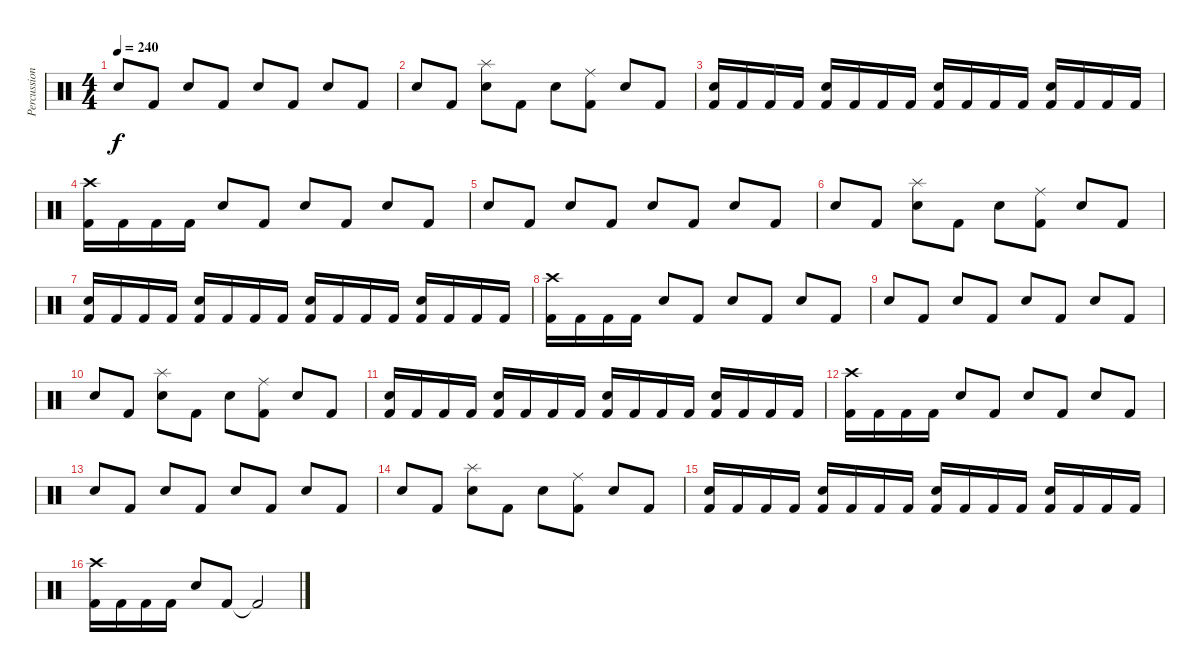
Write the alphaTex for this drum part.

\track ("Percussion" "Percussion") {instrument percussion}
\staff {score}
\articulation defaults
\ts (4 4)
\tempo 240
\clef neutral
\ks c "Electric Snare (hit)".8{dy f} "Kick (hit) 2".8 "Electric Snare (hit)".8 "Kick (hit) 2".8 "Electric Snare (hit)".8 "Kick (hit) 2".8 "Electric Snare (hit)".8 "Kick (hit) 2".8
|
"Electric Snare (hit)".8 "Kick (hit) 2".8 ("Electric Snare (hit)" "Splash (hit)").8 "Kick (hit) 2".8 "Electric Snare (hit)".8 ("Kick (hit) 2" "Ride (middle)").8 "Electric Snare (hit)".8 "Kick (hit) 2".8 |
("Kick (hit) 2" "Electric Snare (hit)").16 "Kick (hit) 2".16 "Kick (hit) 2".16 "Kick (hit) 2".16 ("Kick (hit) 2" "Electric Snare (hit)").16 "Kick (hit) 2".16 "Kick (hit) 2".16 "Kick (hit) 2".16 ("Kick (hit) 2" "Electric Snare (hit)").16 "Kick (hit) 2".16 "Kick (hit) 2".16 "Kick (hit) 2".16 ("Kick (hit) 2" "Electric Snare (hit)").16 "Kick (hit) 2".16 "Kick (hit) 2".16 "Kick (hit) 2".16 |
("Kick (hit) 2" "Crash high (hit)").16 "Kick (hit) 2".16 "Kick (hit) 2".16 "Kick (hit) 2".16 "Electric Snare (hit)".8 "Kick (hit) 2".8 "Electric Snare (hit)".8 "Kick (hit) 2".8 "Electric Snare (hit)".8 "Kick (hit) 2".8 |
"Electric Snare (hit)".8 "Kick (hit) 2".8 "Electric Snare (hit)".8 "Kick (hit) 2".8 "Electric Snare (hit)".8 "Kick (hit) 2".8 "Electric Snare (hit)".8 "Kick (hit) 2".8 |
"Electric Snare (hit)".8 "Kick (hit) 2".8 ("Electric Snare (hit)" "Splash (hit)").8 "Kick (hit) 2".8 "Electric Snare (hit)".8 ("Kick (hit) 2" "Ride (middle)").8 "Electric Snare (hit)".8 "Kick (hit) 2".8 |
("Kick (hit) 2" "Electric Snare (hit)").16 "Kick (hit) 2".16 "Kick (hit) 2".16 "Kick (hit) 2".16 ("Kick (hit) 2" "Electric Snare (hit)").16 "Kick (hit) 2".16 "Kick (hit) 2".16 "Kick (hit) 2".16 ("Kick (hit) 2" "Electric Snare (hit)").16 "Kick (hit) 2".16 "Kick (hit) 2".16 "Kick (hit) 2".16 ("Kick (hit) 2" "Electric Snare (hit)").16 "Kick (hit) 2".16 "Kick (hit) 2".16 "Kick (hit) 2".16 |
("Kick (hit) 2" "Crash high (hit)").16 "Kick (hit) 2".16 "Kick (hit) 2".16 "Kick (hit) 2".16 "Electric Snare (hit)".8 "Kick (hit) 2".8 "Electric Snare (hit)".8 "Kick (hit) 2".8 "Electric Snare (hit)".8 "Kick (hit) 2".8 |
"Electric Snare (hit)".8 "Kick (hit) 2".8 "Electric Snare (hit)".8 "Kick (hit) 2".8 "Electric Snare (hit)".8 "Kick (hit) 2".8 "Electric Snare (hit)".8 "Kick (hit) 2".8 |
"Electric Snare (hit)".8 "Kick (hit) 2".8 ("Electric Snare (hit)" "Splash (hit)").8 "Kick (hit) 2".8 "Electric Snare (hit)".8 ("Kick (hit) 2" "Ride (middle)").8 "Electric Snare (hit)".8 "Kick (hit) 2".8 |
("Kick (hit) 2" "Electric Snare (hit)").16 "Kick (hit) 2".16 "Kick (hit) 2".16 "Kick (hit) 2".16 ("Kick (hit) 2" "Electric Snare (hit)").16 "Kick (hit) 2".16 "Kick (hit) 2".16 "Kick (hit) 2".16 ("Kick (hit) 2" "Electric Snare (hit)").16 "Kick (hit) 2".16 "Kick (hit) 2".16 "Kick (hit) 2".16 ("Kick (hit) 2" "Electric Snare (hit)").16 "Kick (hit) 2".16 "Kick (hit) 2".16 "Kick (hit) 2".16 |
("Kick (hit) 2" "Crash high (hit)").16 "Kick (hit) 2".16 "Kick (hit) 2".16 "Kick (hit) 2".16 "Electric Snare (hit)".8 "Kick (hit) 2".8 "Electric Snare (hit)".8 "Kick (hit) 2".8 "Electric Snare (hit)".8 "Kick (hit) 2".8 |
"Electric Snare (hit)".8 "Kick (hit) 2".8 "Electric Snare (hit)".8 "Kick (hit) 2".8 "Electric Snare (hit)".8 "Kick (hit) 2".8 "Electric Snare (hit)".8 "Kick (hit) 2".8 |
"Electric Snare (hit)".8 "Kick (hit) 2".8 ("Electric Snare (hit)" "Splash (hit)").8 "Kick (hit) 2".8 "Electric Snare (hit)".8 ("Kick (hit) 2" "Ride (middle)").8 "Electric Snare (hit)".8 "Kick (hit) 2".8 |
("Kick (hit) 2" "Electric Snare (hit)").16 "Kick (hit) 2".16 "Kick (hit) 2".16 "Kick (hit) 2".16 ("Kick (hit) 2" "Electric Snare (hit)").16 "Kick (hit) 2".16 "Kick (hit) 2".16 "Kick (hit) 2".16 ("Kick (hit) 2" "Electric Snare (hit)").16 "Kick (hit) 2".16 "Kick (hit) 2".16 "Kick (hit) 2".16 ("Kick (hit) 2" "Electric Snare (hit)").16 "Kick (hit) 2".16 "Kick (hit) 2".16 "Kick (hit) 2".16 |
("Kick (hit) 2" "Crash high (hit)").16 "Kick (hit) 2".16 "Kick (hit) 2".16 "Kick (hit) 2".16 "Electric Snare (hit)".8 "Kick (hit) 2".8 "Kick (hit) 2"{t}.2
